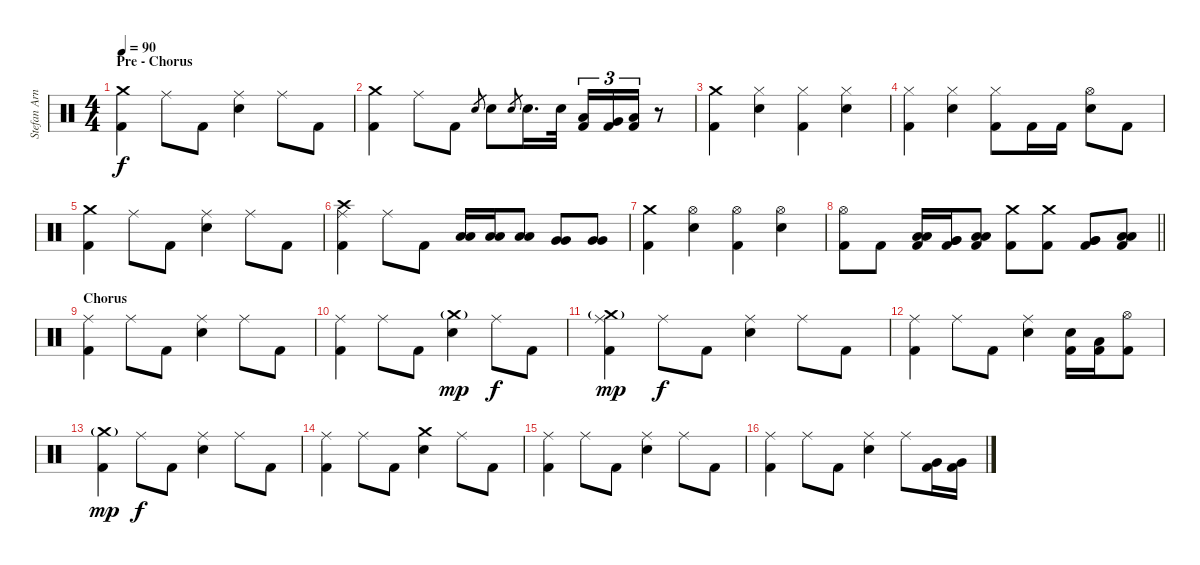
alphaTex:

\track ("Stefan Arnold" "Stefan Arn") {instrument percussion}
\staff {score}
\articulation defaults
\ts (4 4)
\section ("" "Pre - Chorus")
\tempo 90
\clef neutral
\ks c
("Crash medium (hit)" "Kick (hit) 2").4{dy f} "Ride (middle)".8 "Kick (hit) 2".8 ("Ride (middle)" "Electric Snare (hit)").4 "Ride (middle)".8 "Kick (hit) 2".8 |
("Crash medium (hit)" "Kick (hit) 2").4 "Ride (middle)".8 "Kick (hit) 2".8 "Electric Snare (hit)".8{gr} "Electric Snare (hit)".8 "Electric Snare (hit)".8{gr} "Electric Snare (hit)".16{d} "Electric Snare (hit)".32 ("Low Tom (hit)" "Kick (hit) 2").16{tu (3 2)} ("Very Low Tom (hit)" "Kick (hit) 2").16{tu (3 2)} ("Low Floor Tom (hit)" "Kick (hit) 2").16{tu (3 2)} r.8 |
("Crash medium (hit)" "Kick (hit) 2").4 ("Hi-Hat (closed)" "Electric Snare (hit)").4 ("Hi-Hat (closed)" "Kick (hit) 2").4 ("Hi-Hat (closed)" "Electric Snare (hit)").4 |
("Hi-Hat (closed)" "Kick (hit) 2").4 ("Hi-Hat (closed)" "Electric Snare (hit)").4 ("Hi-Hat (closed)" "Kick (hit) 2").8 "Kick (hit) 2".16 "Kick (hit) 2".16 ("Hi-Hat (open)" "Electric Snare (hit)").8 "Kick (hit) 2".8 |
("Crash medium (hit)" "Kick (hit) 2").4 "Ride (middle)".8 "Kick (hit) 2".8 ("Ride (middle)" "Electric Snare (hit)").4 "Ride (middle)".8 "Kick (hit) 2".8 |
("Ride (middle)" "Crash high (hit)" "Kick (hit) 2").4 "Ride (middle)".8 "Kick (hit) 2".8 ("Low Tom (hit)" "Low Tom (hit)").16 ("Low Tom (hit)" "Low Tom (hit)").16 ("Low Tom (hit)" "Low Tom (hit)").8 ("Very Low Tom (hit)" "Very Low Tom (hit)").8 ("Very Low Tom (hit)" "Very Low Tom (hit)").8 |
("Crash medium (hit)" "Kick (hit) 2").4 ("Hi-Hat (open)" "Electric Snare (hit)").4 ("Hi-Hat (open)" "Kick (hit) 2").4 ("Hi-Hat (open)" "Electric Snare (hit)").4 |
\barLineRight lightlight
("Hi-Hat (open)" "Kick (hit) 2").8 "Kick (hit) 2".8 ("Low Tom (hit)" "Low Tom (hit)" "Kick (hit) 2").16 ("Very Low Tom (hit)" "Very Low Tom (hit)" "Kick (hit) 2").16 ("Low Floor Tom (hit)" "Low Floor Tom (hit)" "Kick (hit) 2").8 ("Crash medium (hit)" "Kick (hit) 2").8 ("Crash medium (hit)" "Kick (hit) 2").8 ("Very Low Tom (hit)" "Very Low Tom (hit)" "Kick (hit) 2").8 ("Low Floor Tom (hit)" "Low Floor Tom (hit)" "Kick (hit) 2").8 |
\section ("" "Chorus")
("Ride (middle)" "Kick (hit) 2").4 "Ride (middle)".8 "Kick (hit) 2".8 ("Ride (middle)" "Electric Snare (hit)").4 "Ride (middle)".8 "Kick (hit) 2".8 |
("Ride (middle)" "Kick (hit) 2").4 "Ride (middle)".8 "Kick (hit) 2".8 ("Crash medium (hit)"{g} "Electric Snare (hit)").4{dy mp} "Ride (middle)".8{dy f} "Kick (hit) 2".8 |
("Ride (middle)" "Crash medium (hit)"{g} "Kick (hit) 2").4{dy mp} "Ride (middle)".8{dy f} "Kick (hit) 2".8 ("Ride (middle)" "Electric Snare (hit)").4 "Ride (middle)".8 "Kick (hit) 2".8 |
("Ride (middle)" "Kick (hit) 2").4 "Ride (middle)".8 "Kick (hit) 2".8 ("Ride (middle)" "Electric Snare (hit)").4 ("Electric Snare (hit)" "Kick (hit) 2").16 ("Low Tom (hit)" "Kick (hit) 2").16 ("Hi-Hat (open)" "Kick (hit) 2").8 |
("Crash medium (hit)"{g} "Kick (hit) 2").4{dy mp} "Ride (middle)".8{dy f} "Kick (hit) 2".8 ("Ride (middle)" "Electric Snare (hit)").4 "Ride (middle)".8 "Kick (hit) 2".8 |
("Ride (middle)" "Kick (hit) 2").4 "Ride (middle)".8 "Kick (hit) 2".8 ("Crash medium (hit)" "Electric Snare (hit)").4 "Ride (middle)".8 "Kick (hit) 2".8 |
("Ride (middle)" "Kick (hit) 2").4 "Ride (middle)".8 "Kick (hit) 2".8 ("Ride (middle)" "Electric Snare (hit)").4 "Ride (middle)".8 "Kick (hit) 2".8 |
("Ride (middle)" "Kick (hit) 2").4 "Ride (middle)".8 "Kick (hit) 2".8 ("Ride (middle)" "Electric Snare (hit)").4 "Ride (middle)".8 ("Very Low Tom (hit)" "Kick (hit) 2").16 ("Very Low Tom (hit)" "Kick (hit) 2").16
